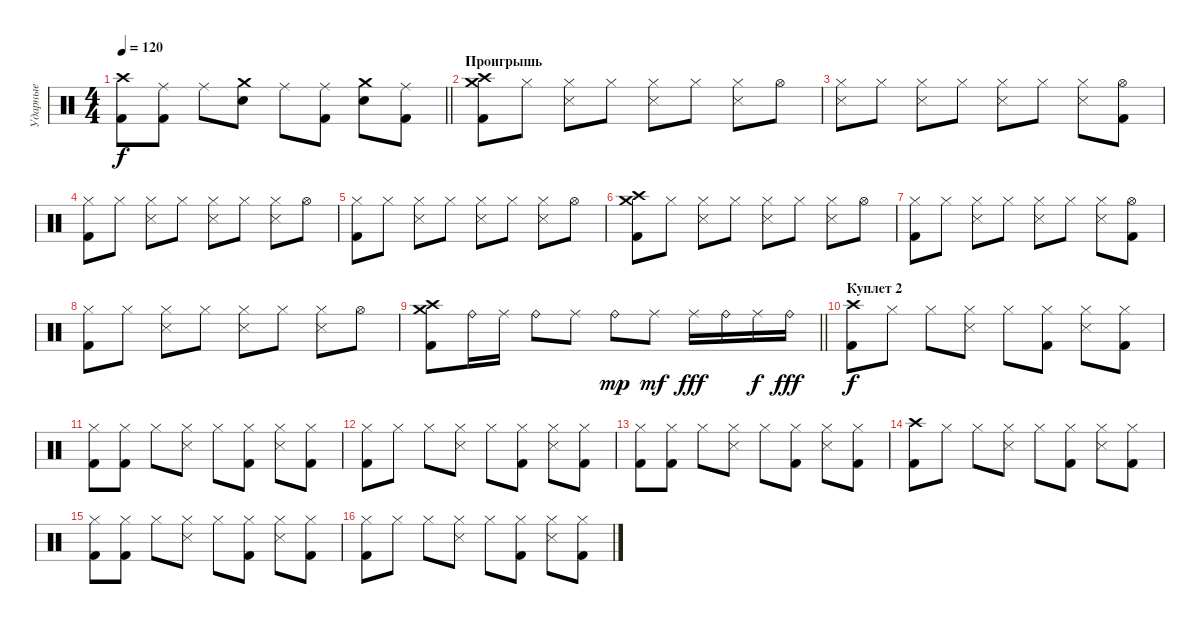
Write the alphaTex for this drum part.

\track ("Ударные" "Ударные") {instrument percussion}
\staff
\articulation defaults
\ts (4 4)
\tempo 120
\clef neutral
\barLineRight lightlight
\ks c
("Crash high (hit)" "Kick (hit) 2").8{dy f} ("Ride (middle)" "Kick (hit) 2").8 "Ride (middle)".8 ("Crash medium (hit)" "Electric Snare (hit)").8 "Ride (middle)".8 ("Ride (middle)" "Kick (hit) 2").8 ("Crash medium (hit)" "Electric Snare (hit)").8 ("Ride (middle)" "Kick (hit) 2").8 |
\section ("" "Проигрышь")
("Crash medium (hit)" "Crash high (hit)" "Kick (hit) 2").8 "Hi-Hat (closed)".8 ("Hi-Hat (closed)" "Snare (side stick) 3").8 "Hi-Hat (closed)".8 ("Hi-Hat (closed)" "Snare (side stick) 3").8 "Hi-Hat (closed)".8 ("Hi-Hat (closed)" "Snare (side stick) 3").8 "Hi-Hat (open)".8 |
("Hi-Hat (closed)" "Snare (side stick) 3").8 "Hi-Hat (closed)".8 ("Hi-Hat (closed)" "Snare (side stick) 3").8 "Hi-Hat (closed)".8 ("Hi-Hat (closed)" "Snare (side stick) 3").8 "Hi-Hat (closed)".8 ("Hi-Hat (closed)" "Snare (side stick) 3").8 ("Hi-Hat (open)" "Kick (hit) 2").8 |
("Hi-Hat (closed)" "Kick (hit) 2").8 "Hi-Hat (closed)".8 ("Hi-Hat (closed)" "Snare (side stick) 3").8 "Hi-Hat (closed)".8 ("Hi-Hat (closed)" "Snare (side stick) 3").8 "Hi-Hat (closed)".8 ("Hi-Hat (closed)" "Snare (side stick) 3").8 "Hi-Hat (open)".8 |
("Hi-Hat (closed)" "Kick (hit) 2").8 "Hi-Hat (closed)".8 ("Hi-Hat (closed)" "Snare (side stick) 3").8 "Hi-Hat (closed)".8 ("Hi-Hat (closed)" "Snare (side stick) 3").8 "Hi-Hat (closed)".8 ("Hi-Hat (closed)" "Snare (side stick) 3").8 "Hi-Hat (open)".8 |
("Crash medium (hit)" "Crash high (hit)" "Kick (hit) 2").8 "Hi-Hat (closed)".8 ("Hi-Hat (closed)" "Snare (side stick) 3").8 "Hi-Hat (closed)".8 ("Hi-Hat (closed)" "Snare (side stick) 3").8 "Hi-Hat (closed)".8 ("Hi-Hat (closed)" "Snare (side stick) 3").8 "Hi-Hat (open)".8 |
("Hi-Hat (closed)" "Kick (hit) 2").8 "Hi-Hat (closed)".8 ("Hi-Hat (closed)" "Snare (side stick) 3").8 "Hi-Hat (closed)".8 ("Hi-Hat (closed)" "Snare (side stick) 3").8 "Hi-Hat (closed)".8 ("Hi-Hat (closed)" "Snare (side stick) 3").8 ("Hi-Hat (open)" "Kick (hit) 2").8 |
("Hi-Hat (closed)" "Kick (hit) 2").8 "Hi-Hat (closed)".8 ("Hi-Hat (closed)" "Snare (side stick) 3").8 "Hi-Hat (closed)".8 ("Hi-Hat (closed)" "Snare (side stick) 3").8 "Hi-Hat (closed)".8 ("Hi-Hat (closed)" "Snare (side stick) 3").8 "Hi-Hat (open)".8 |
\barLineRight lightlight
("Crash medium (hit)" "Crash high (hit)" "Kick (hit) 2").8 "Ride (bell)".16 "Ride (middle)".16 "Ride (bell)".8 "Ride (middle)".8 "Ride (bell)".8{dy mp} "Ride (middle)".8{dy mf} "Ride (middle)".16{dy fff} "Ride (bell)".16 "Ride (middle)".16{dy f} "Ride (bell)".16{dy fff} |
\section ("" "Куплет 2")
("Crash high (hit)" "Kick (hit) 2").8{dy f} "Hi-Hat (closed)".8 "Hi-Hat (closed)".8 ("Hi-Hat (closed)" "Snare (side stick) 3").8 "Hi-Hat (closed)".8 ("Hi-Hat (closed)" "Kick (hit) 2").8 ("Hi-Hat (closed)" "Snare (side stick) 3").8 ("Hi-Hat (closed)" "Kick (hit) 2").8 |
("Hi-Hat (closed)" "Kick (hit) 2").8 ("Hi-Hat (closed)" "Kick (hit) 2").8 "Hi-Hat (closed)".8 ("Hi-Hat (closed)" "Snare (side stick) 3").8 "Hi-Hat (closed)".8 ("Hi-Hat (closed)" "Kick (hit) 2").8 ("Hi-Hat (closed)" "Snare (side stick) 3").8 ("Hi-Hat (closed)" "Kick (hit) 2").8 |
("Hi-Hat (closed)" "Kick (hit) 2").8 "Hi-Hat (closed)".8 "Hi-Hat (closed)".8 ("Hi-Hat (closed)" "Snare (side stick) 3").8 "Hi-Hat (closed)".8 ("Hi-Hat (closed)" "Kick (hit) 2").8 ("Hi-Hat (closed)" "Snare (side stick) 3").8 ("Hi-Hat (closed)" "Kick (hit) 2").8 |
("Hi-Hat (closed)" "Kick (hit) 2").8 ("Hi-Hat (closed)" "Kick (hit) 2").8 "Hi-Hat (closed)".8 ("Hi-Hat (closed)" "Snare (side stick) 3").8 "Hi-Hat (closed)".8 ("Hi-Hat (closed)" "Kick (hit) 2").8 ("Hi-Hat (closed)" "Snare (side stick) 3").8 ("Hi-Hat (closed)" "Kick (hit) 2").8 |
("Crash high (hit)" "Kick (hit) 2").8 "Hi-Hat (closed)".8 "Hi-Hat (closed)".8 ("Hi-Hat (closed)" "Snare (side stick) 3").8 "Hi-Hat (closed)".8 ("Hi-Hat (closed)" "Kick (hit) 2").8 ("Hi-Hat (closed)" "Snare (side stick) 3").8 ("Hi-Hat (closed)" "Kick (hit) 2").8 |
("Hi-Hat (closed)" "Kick (hit) 2").8 ("Hi-Hat (closed)" "Kick (hit) 2").8 "Hi-Hat (closed)".8 ("Hi-Hat (closed)" "Snare (side stick) 3").8 "Hi-Hat (closed)".8 ("Hi-Hat (closed)" "Kick (hit) 2").8 ("Hi-Hat (closed)" "Snare (side stick) 3").8 ("Hi-Hat (closed)" "Kick (hit) 2").8 |
("Hi-Hat (closed)" "Kick (hit) 2").8 "Hi-Hat (closed)".8 "Hi-Hat (closed)".8 ("Hi-Hat (closed)" "Snare (side stick) 3").8 "Hi-Hat (closed)".8 ("Hi-Hat (closed)" "Kick (hit) 2").8 ("Hi-Hat (closed)" "Snare (side stick) 3").8 ("Hi-Hat (closed)" "Kick (hit) 2").8
